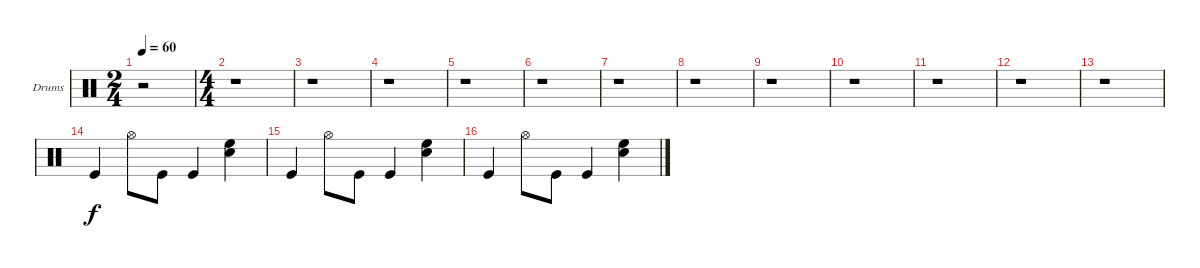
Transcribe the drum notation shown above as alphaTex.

\bracketExtendMode groupsimilarinstruments
\firstSystemTrackNameOrientation horizontal
\otherSystemsTrackNameOrientation horizontal
\track ("Drumkit" "Drums") {instrument percussion}
\staff {score}
\articulation defaults
\ts (2 4)
\beaming (8 2 2)
\tempo 60
\clef neutral
\scale
0.391473
\ks c
r.2{dy f} |
\ts (4 4)
\beaming (8 2 2 2 2)
\scale
0.391473 r.1 |
\scale
0.217054 r.1 |
\scale
0.333333 r.1 |
\scale
0.333333 r.1 |
\scale
0.333333 r.1 |
\scale
0.333333 r.1 |
\scale
0.333333 r.1 |
\scale
0.333333 r.1 |
\scale
0.333333 r.1 |
\scale
0.333333 r.1 |
\scale
0.333333 r.1 |
\scale
0.333333 r.1 |
\scale
0.333333 "Kick (hit)".4 "Hi-Hat (open)".8 "Kick (hit)".8 "Kick (hit)".4 ("High Floor Tom (hit)" "Snare (hit) 2").4 |
\scale
0.333333 "Kick (hit)".4 "Hi-Hat (open)".8 "Kick (hit)".8 "Kick (hit)".4 ("High Floor Tom (hit)" "Snare (hit) 2").4 |
\scale
0.333333 "Kick (hit)".4 "Hi-Hat (open)".8 "Kick (hit)".8 "Kick (hit)".4 ("High Floor Tom (hit)" "Snare (hit) 2").4
